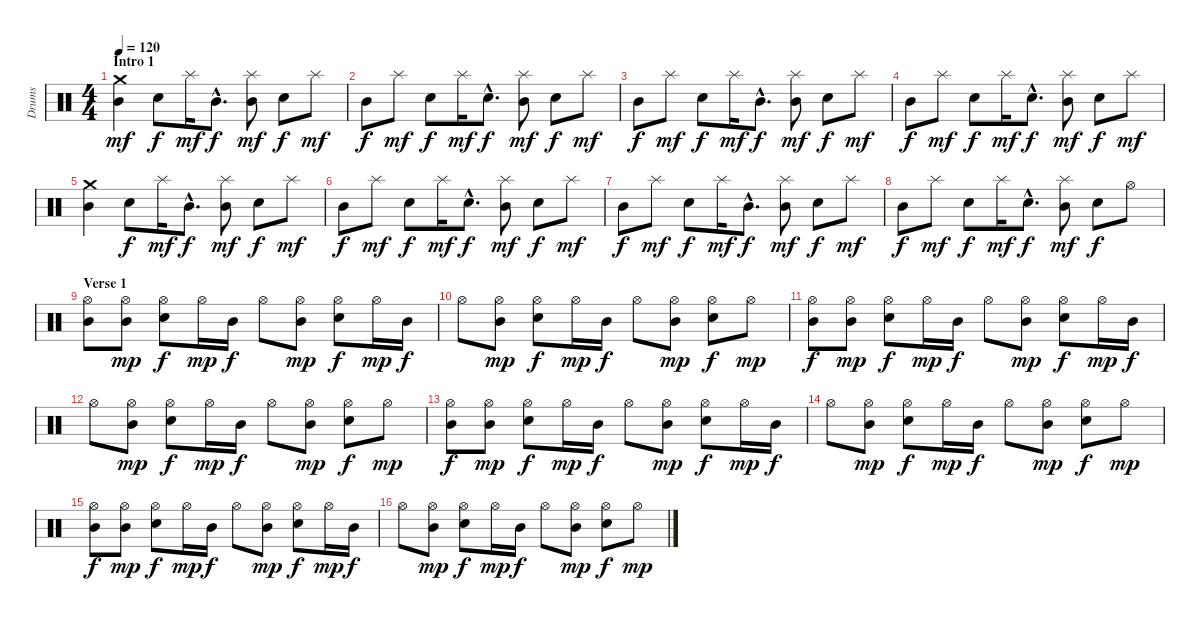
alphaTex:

\track ("Drums" "Drums") {instrument percussion}
\staff {score}
\articulation defaults
\ts (4 4)
\section ("" "Intro 1")
\tempo 120
\clef neutral
\ks c
("Crash medium (hit)" "Mid Tom (hit)").4{dy mf} "Electric Snare (hit)".8{dy f} "Splash (hit)".16{dy mf} "Mid Tom (hit)"{hac}.8{d dy f} ("Splash (hit)" "Mid Tom (hit)").8{dy mf} "Electric Snare (hit)".8{dy f} "Splash (hit)".8{dy mf} |
"Mid Tom (hit)".8{dy f} "Splash (hit)".8{dy mf} "Electric Snare (hit)".8{dy f} "Splash (hit)".16{dy mf} "Electric Snare (hit)"{hac}.8{d dy f} ("Splash (hit)" "Mid Tom (hit)").8{dy mf} "Electric Snare (hit)".8{dy f} "Splash (hit)".8{dy mf} |
"Mid Tom (hit)".8{dy f} "Splash (hit)".8{dy mf} "Electric Snare (hit)".8{dy f} "Splash (hit)".16{dy mf} "Mid Tom (hit)"{hac}.8{d dy f} ("Splash (hit)" "Mid Tom (hit)").8{dy mf} "Electric Snare (hit)".8{dy f} "Splash (hit)".8{dy mf} |
"Mid Tom (hit)".8{dy f} "Splash (hit)".8{dy mf} "Electric Snare (hit)".8{dy f} "Splash (hit)".16{dy mf} "Electric Snare (hit)"{hac}.8{d dy f} ("Splash (hit)" "Mid Tom (hit)").8{dy mf} "Electric Snare (hit)".8{dy f} "Splash (hit)".8{dy mf} |
("Crash medium (hit)" "Mid Tom (hit)").4 "Electric Snare (hit)".8{dy f} "Splash (hit)".16{dy mf} "Mid Tom (hit)"{hac}.8{d dy f} ("Splash (hit)" "Mid Tom (hit)").8{dy mf} "Electric Snare (hit)".8{dy f} "Splash (hit)".8{dy mf} |
"Mid Tom (hit)".8{dy f} "Splash (hit)".8{dy mf} "Electric Snare (hit)".8{dy f} "Splash (hit)".16{dy mf} "Electric Snare (hit)"{hac}.8{d dy f} ("Splash (hit)" "Mid Tom (hit)").8{dy mf} "Electric Snare (hit)".8{dy f} "Splash (hit)".8{dy mf} |
"Mid Tom (hit)".8{dy f} "Splash (hit)".8{dy mf} "Electric Snare (hit)".8{dy f} "Splash (hit)".16{dy mf} "Mid Tom (hit)"{hac}.8{d dy f} ("Splash (hit)" "Mid Tom (hit)").8{dy mf} "Electric Snare (hit)".8{dy f} "Splash (hit)".8{dy mf} |
"Mid Tom (hit)".8{dy f} "Splash (hit)".8{dy mf} "Electric Snare (hit)".8{dy f} "Splash (hit)".16{dy mf} "Electric Snare (hit)"{hac}.8{d dy f} ("Splash (hit)" "Mid Tom (hit)").8{dy mf} "Electric Snare (hit)".8{dy f} "Hi-Hat (open)".8 |
\section ("" "Verse 1")
("Hi-Hat (open)" "Mid Tom (hit)").8 ("Hi-Hat (open)" "Mid Tom (hit)").8{dy mp} ("Hi-Hat (open)" "Electric Snare (hit)").8{dy f} "Hi-Hat (open)".16{dy mp} "Mid Tom (hit)".16{dy f} "Hi-Hat (open)".8 ("Hi-Hat (open)" "Mid Tom (hit)").8{dy mp} ("Hi-Hat (open)" "Electric Snare (hit)").8{dy f} "Hi-Hat (open)".16{dy mp} "Mid Tom (hit)".16{dy f} |
"Hi-Hat (open)".8 ("Hi-Hat (open)" "Mid Tom (hit)").8{dy mp} ("Hi-Hat (open)" "Electric Snare (hit)").8{dy f} "Hi-Hat (open)".16{dy mp} "Mid Tom (hit)".16{dy f} "Hi-Hat (open)".8 ("Hi-Hat (open)" "Mid Tom (hit)").8{dy mp} ("Hi-Hat (open)" "Electric Snare (hit)").8{dy f} "Hi-Hat (open)".8{dy mp} |
("Hi-Hat (open)" "Mid Tom (hit)").8{dy f} ("Hi-Hat (open)" "Mid Tom (hit)").8{dy mp} ("Hi-Hat (open)" "Electric Snare (hit)").8{dy f} "Hi-Hat (open)".16{dy mp} "Mid Tom (hit)".16{dy f} "Hi-Hat (open)".8 ("Hi-Hat (open)" "Mid Tom (hit)").8{dy mp} ("Hi-Hat (open)" "Electric Snare (hit)").8{dy f} "Hi-Hat (open)".16{dy mp} "Mid Tom (hit)".16{dy f} |
"Hi-Hat (open)".8 ("Hi-Hat (open)" "Mid Tom (hit)").8{dy mp} ("Hi-Hat (open)" "Electric Snare (hit)").8{dy f} "Hi-Hat (open)".16{dy mp} "Mid Tom (hit)".16{dy f} "Hi-Hat (open)".8 ("Hi-Hat (open)" "Mid Tom (hit)").8{dy mp} ("Hi-Hat (open)" "Electric Snare (hit)").8{dy f} "Hi-Hat (open)".8{dy mp} |
("Hi-Hat (open)" "Mid Tom (hit)").8{dy f} ("Hi-Hat (open)" "Mid Tom (hit)").8{dy mp} ("Hi-Hat (open)" "Electric Snare (hit)").8{dy f} "Hi-Hat (open)".16{dy mp} "Mid Tom (hit)".16{dy f} "Hi-Hat (open)".8 ("Hi-Hat (open)" "Mid Tom (hit)").8{dy mp} ("Hi-Hat (open)" "Electric Snare (hit)").8{dy f} "Hi-Hat (open)".16{dy mp} "Mid Tom (hit)".16{dy f} |
"Hi-Hat (open)".8 ("Hi-Hat (open)" "Mid Tom (hit)").8{dy mp} ("Hi-Hat (open)" "Electric Snare (hit)").8{dy f} "Hi-Hat (open)".16{dy mp} "Mid Tom (hit)".16{dy f} "Hi-Hat (open)".8 ("Hi-Hat (open)" "Mid Tom (hit)").8{dy mp} ("Hi-Hat (open)" "Electric Snare (hit)").8{dy f} "Hi-Hat (open)".8{dy mp} |
("Hi-Hat (open)" "Mid Tom (hit)").8{dy f} ("Hi-Hat (open)" "Mid Tom (hit)").8{dy mp} ("Hi-Hat (open)" "Electric Snare (hit)").8{dy f} "Hi-Hat (open)".16{dy mp} "Mid Tom (hit)".16{dy f} "Hi-Hat (open)".8 ("Hi-Hat (open)" "Mid Tom (hit)").8{dy mp} ("Hi-Hat (open)" "Electric Snare (hit)").8{dy f} "Hi-Hat (open)".16{dy mp} "Mid Tom (hit)".16{dy f} |
"Hi-Hat (open)".8 ("Hi-Hat (open)" "Mid Tom (hit)").8{dy mp} ("Hi-Hat (open)" "Electric Snare (hit)").8{dy f} "Hi-Hat (open)".16{dy mp} "Mid Tom (hit)".16{dy f} "Hi-Hat (open)".8 ("Hi-Hat (open)" "Mid Tom (hit)").8{dy mp} ("Hi-Hat (open)" "Electric Snare (hit)").8{dy f} "Hi-Hat (open)".8{dy mp}
